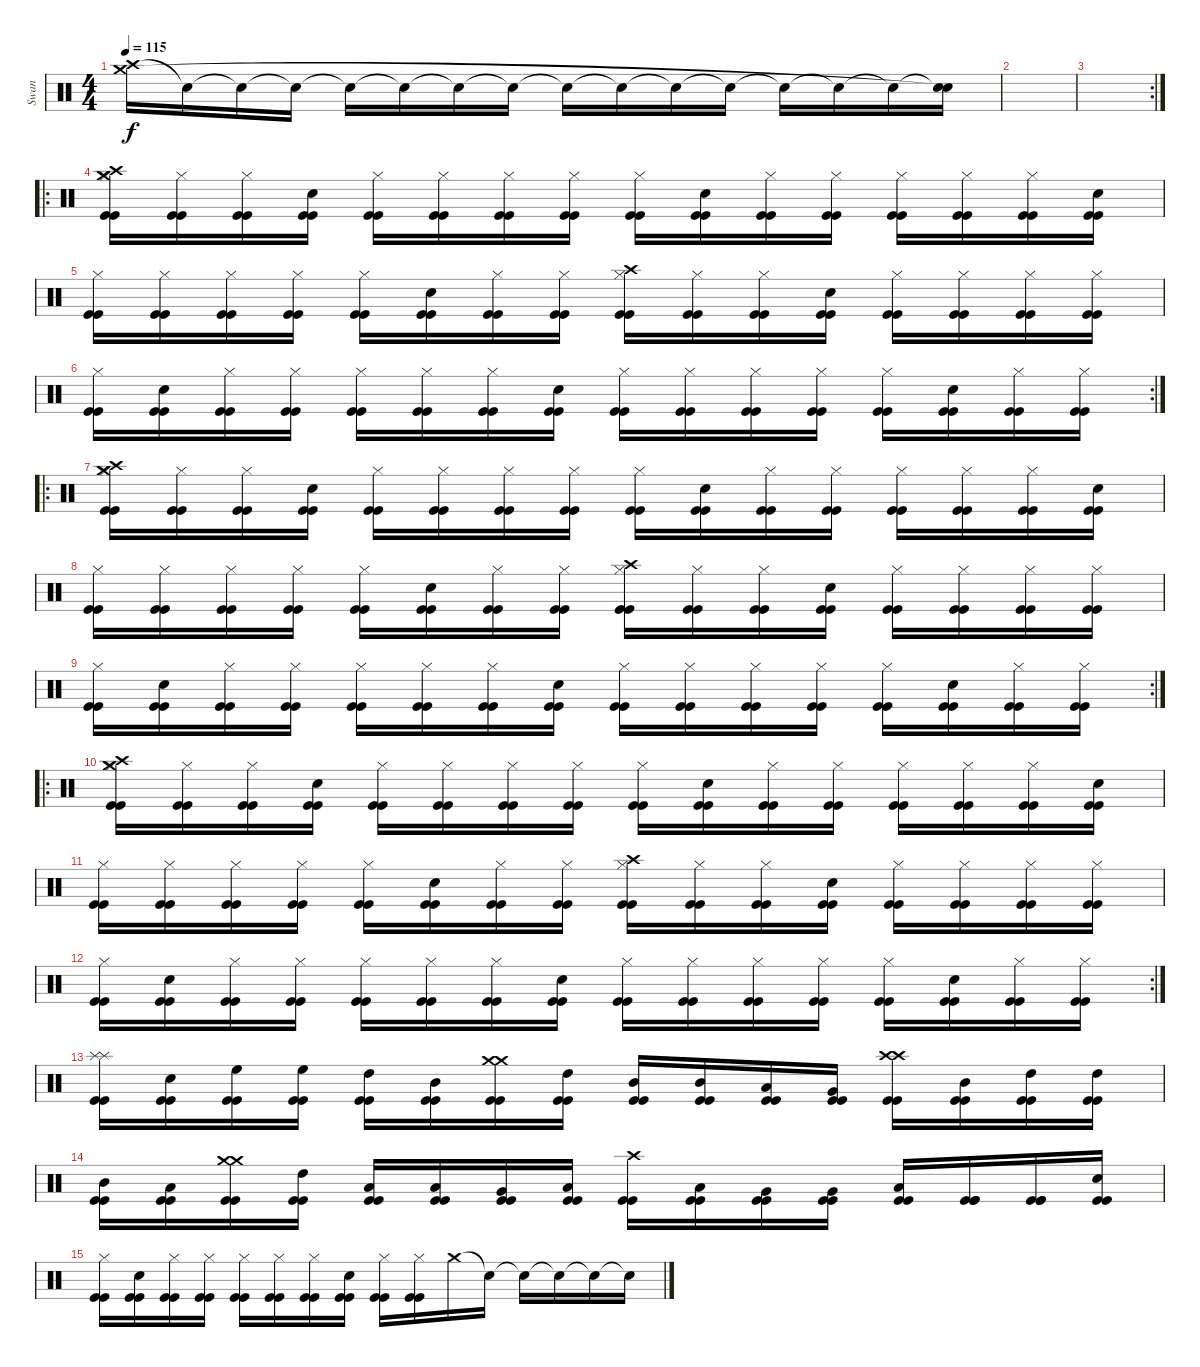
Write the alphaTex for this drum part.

\track ("Swan" "Swan") {instrument percussion}
\staff {score}
\articulation defaults
\ts (4 4)
\tempo 115
\clef neutral
\ks c
("Crash high (hit)" "Crash medium (hit)").16{dy f} "Snare (hit)"{t}.16 "Snare (hit)"{t}.16 "Snare (hit)"{t}.16 "Snare (hit)"{t}.16 "Snare (hit)"{t}.16 "Snare (hit)"{t}.16 "Snare (hit)"{t}.16 "Snare (hit)"{t}.16 "Snare (hit)"{t}.16 "Snare (hit)"{t}.16 "Snare (hit)"{t}.16 "Snare (hit)"{t}.16 "Snare (hit)"{t}.16 "Snare (hit)"{t}.16 ("Snare (hit)"{t} "Snare (hit)"{t}).16 |
|
\rc 2
|
\ro
("Crash medium (hit)" "Crash high (hit)" "Hi-Hat (closed)" "Kick (hit)" "Kick (hit)").16 ("Hi-Hat (closed)" "Kick (hit)" "Kick (hit)").16 ("Hi-Hat (closed)" "Kick (hit)" "Kick (hit)").16 ("Snare (hit) 2" "Kick (hit)" "Kick (hit)").16 ("Hi-Hat (closed)" "Kick (hit)" "Kick (hit)").16 ("Hi-Hat (closed)" "Kick (hit)" "Kick (hit)").16 ("Hi-Hat (closed)" "Kick (hit)" "Kick (hit)").16 ("Hi-Hat (closed)" "Kick (hit)" "Kick (hit)").16 ("Hi-Hat (closed)" "Kick (hit)" "Kick (hit)").16 ("Snare (hit) 2" "Kick (hit)" "Kick (hit)").16 ("Hi-Hat (closed)" "Kick (hit)" "Kick (hit)").16 ("Hi-Hat (closed)" "Kick (hit)" "Kick (hit)").16 ("Hi-Hat (closed)" "Kick (hit)" "Kick (hit)").16 ("Hi-Hat (closed)" "Kick (hit)" "Kick (hit)").16 ("Hi-Hat (closed)" "Kick (hit)" "Kick (hit)").16 ("Snare (hit) 2" "Kick (hit)" "Kick (hit)").16 |
("Hi-Hat (closed)" "Kick (hit)" "Kick (hit)").16 ("Hi-Hat (closed)" "Kick (hit)" "Kick (hit)").16 ("Hi-Hat (closed)" "Kick (hit)" "Kick (hit)").16 ("Hi-Hat (closed)" "Kick (hit)" "Kick (hit)").16 ("Hi-Hat (closed)" "Kick (hit)" "Kick (hit)").16 ("Snare (hit) 2" "Kick (hit)" "Kick (hit)").16 ("Hi-Hat (closed)" "Kick (hit)" "Kick (hit)").16 ("Hi-Hat (closed)" "Kick (hit)" "Kick (hit)").16 ("Crash high (hit)" "Hi-Hat (closed)" "Kick (hit)" "Kick (hit)").16 ("Hi-Hat (closed)" "Kick (hit)" "Kick (hit)").16 ("Hi-Hat (closed)" "Kick (hit)" "Kick (hit)").16 ("Snare (hit) 2" "Kick (hit)" "Kick (hit)").16 ("Hi-Hat (closed)" "Kick (hit)" "Kick (hit)").16 ("Hi-Hat (closed)" "Kick (hit)" "Kick (hit)").16 ("Hi-Hat (closed)" "Kick (hit)" "Kick (hit)").16 ("Hi-Hat (closed)" "Kick (hit)" "Kick (hit)").16 |
\rc 2
("Hi-Hat (closed)" "Kick (hit)" "Kick (hit)").16 ("Snare (hit) 2" "Kick (hit)" "Kick (hit)").16 ("Hi-Hat (closed)" "Kick (hit)" "Kick (hit)").16 ("Hi-Hat (closed)" "Kick (hit)" "Kick (hit)").16 ("Hi-Hat (closed)" "Kick (hit)" "Kick (hit)").16 ("Hi-Hat (closed)" "Kick (hit)" "Kick (hit)").16 ("Hi-Hat (closed)" "Kick (hit)" "Kick (hit)").16 ("Snare (hit) 2" "Kick (hit)" "Kick (hit)").16 ("Hi-Hat (closed)" "Kick (hit)" "Kick (hit)").16 ("Hi-Hat (closed)" "Kick (hit)" "Kick (hit)").16 ("Hi-Hat (closed)" "Kick (hit)" "Kick (hit)").16 ("Hi-Hat (closed)" "Kick (hit)" "Kick (hit)").16 ("Hi-Hat (closed)" "Kick (hit)" "Kick (hit)").16 ("Snare (hit) 2" "Kick (hit)" "Kick (hit)").16 ("Hi-Hat (closed)" "Kick (hit)" "Kick (hit)").16 ("Hi-Hat (closed)" "Kick (hit)" "Kick (hit)").16 |
\ro
("Crash medium (hit)" "Crash high (hit)" "Hi-Hat (closed)" "Kick (hit)" "Kick (hit)").16 ("Hi-Hat (closed)" "Kick (hit)" "Kick (hit)").16 ("Hi-Hat (closed)" "Kick (hit)" "Kick (hit)").16 ("Snare (hit) 2" "Kick (hit)" "Kick (hit)").16 ("Hi-Hat (closed)" "Kick (hit)" "Kick (hit)").16 ("Hi-Hat (closed)" "Kick (hit)" "Kick (hit)").16 ("Hi-Hat (closed)" "Kick (hit)" "Kick (hit)").16 ("Hi-Hat (closed)" "Kick (hit)" "Kick (hit)").16 ("Hi-Hat (closed)" "Kick (hit)" "Kick (hit)").16 ("Snare (hit) 2" "Kick (hit)" "Kick (hit)").16 ("Hi-Hat (closed)" "Kick (hit)" "Kick (hit)").16 ("Hi-Hat (closed)" "Kick (hit)" "Kick (hit)").16 ("Hi-Hat (closed)" "Kick (hit)" "Kick (hit)").16 ("Hi-Hat (closed)" "Kick (hit)" "Kick (hit)").16 ("Hi-Hat (closed)" "Kick (hit)" "Kick (hit)").16 ("Snare (hit) 2" "Kick (hit)" "Kick (hit)").16 |
("Hi-Hat (closed)" "Kick (hit)" "Kick (hit)").16 ("Hi-Hat (closed)" "Kick (hit)" "Kick (hit)").16 ("Hi-Hat (closed)" "Kick (hit)" "Kick (hit)").16 ("Hi-Hat (closed)" "Kick (hit)" "Kick (hit)").16 ("Hi-Hat (closed)" "Kick (hit)" "Kick (hit)").16 ("Snare (hit) 2" "Kick (hit)" "Kick (hit)").16 ("Hi-Hat (closed)" "Kick (hit)" "Kick (hit)").16 ("Hi-Hat (closed)" "Kick (hit)" "Kick (hit)").16 ("Crash high (hit)" "Hi-Hat (closed)" "Kick (hit)" "Kick (hit)").16 ("Hi-Hat (closed)" "Kick (hit)" "Kick (hit)").16 ("Hi-Hat (closed)" "Kick (hit)" "Kick (hit)").16 ("Snare (hit) 2" "Kick (hit)" "Kick (hit)").16 ("Hi-Hat (closed)" "Kick (hit)" "Kick (hit)").16 ("Hi-Hat (closed)" "Kick (hit)" "Kick (hit)").16 ("Hi-Hat (closed)" "Kick (hit)" "Kick (hit)").16 ("Hi-Hat (closed)" "Kick (hit)" "Kick (hit)").16 |
\rc 2
("Hi-Hat (closed)" "Kick (hit)" "Kick (hit)").16 ("Snare (hit) 2" "Kick (hit)" "Kick (hit)").16 ("Hi-Hat (closed)" "Kick (hit)" "Kick (hit)").16 ("Hi-Hat (closed)" "Kick (hit)" "Kick (hit)").16 ("Hi-Hat (closed)" "Kick (hit)" "Kick (hit)").16 ("Hi-Hat (closed)" "Kick (hit)" "Kick (hit)").16 ("Hi-Hat (closed)" "Kick (hit)" "Kick (hit)").16 ("Snare (hit) 2" "Kick (hit)" "Kick (hit)").16 ("Hi-Hat (closed)" "Kick (hit)" "Kick (hit)").16 ("Hi-Hat (closed)" "Kick (hit)" "Kick (hit)").16 ("Hi-Hat (closed)" "Kick (hit)" "Kick (hit)").16 ("Hi-Hat (closed)" "Kick (hit)" "Kick (hit)").16 ("Hi-Hat (closed)" "Kick (hit)" "Kick (hit)").16 ("Snare (hit) 2" "Kick (hit)" "Kick (hit)").16 ("Hi-Hat (closed)" "Kick (hit)" "Kick (hit)").16 ("Hi-Hat (closed)" "Kick (hit)" "Kick (hit)").16 |
\ro
("Crash medium (hit)" "Crash high (hit)" "Hi-Hat (closed)" "Kick (hit)" "Kick (hit)").16 ("Hi-Hat (closed)" "Kick (hit)" "Kick (hit)").16 ("Hi-Hat (closed)" "Kick (hit)" "Kick (hit)").16 ("Snare (hit) 2" "Kick (hit)" "Kick (hit)").16 ("Hi-Hat (closed)" "Kick (hit)" "Kick (hit)").16 ("Hi-Hat (closed)" "Kick (hit)" "Kick (hit)").16 ("Hi-Hat (closed)" "Kick (hit)" "Kick (hit)").16 ("Hi-Hat (closed)" "Kick (hit)" "Kick (hit)").16 ("Hi-Hat (closed)" "Kick (hit)" "Kick (hit)").16 ("Snare (hit) 2" "Kick (hit)" "Kick (hit)").16 ("Hi-Hat (closed)" "Kick (hit)" "Kick (hit)").16 ("Hi-Hat (closed)" "Kick (hit)" "Kick (hit)").16 ("Hi-Hat (closed)" "Kick (hit)" "Kick (hit)").16 ("Hi-Hat (closed)" "Kick (hit)" "Kick (hit)").16 ("Hi-Hat (closed)" "Kick (hit)" "Kick (hit)").16 ("Snare (hit) 2" "Kick (hit)" "Kick (hit)").16 |
("Hi-Hat (closed)" "Kick (hit)" "Kick (hit)").16 ("Hi-Hat (closed)" "Kick (hit)" "Kick (hit)").16 ("Hi-Hat (closed)" "Kick (hit)" "Kick (hit)").16 ("Hi-Hat (closed)" "Kick (hit)" "Kick (hit)").16 ("Hi-Hat (closed)" "Kick (hit)" "Kick (hit)").16 ("Snare (hit) 2" "Kick (hit)" "Kick (hit)").16 ("Hi-Hat (closed)" "Kick (hit)" "Kick (hit)").16 ("Hi-Hat (closed)" "Kick (hit)" "Kick (hit)").16 ("Crash high (hit)" "Hi-Hat (closed)" "Kick (hit)" "Kick (hit)").16 ("Hi-Hat (closed)" "Kick (hit)" "Kick (hit)").16 ("Hi-Hat (closed)" "Kick (hit)" "Kick (hit)").16 ("Snare (hit) 2" "Kick (hit)" "Kick (hit)").16 ("Hi-Hat (closed)" "Kick (hit)" "Kick (hit)").16 ("Hi-Hat (closed)" "Kick (hit)" "Kick (hit)").16 ("Hi-Hat (closed)" "Kick (hit)" "Kick (hit)").16 ("Hi-Hat (closed)" "Kick (hit)" "Kick (hit)").16 |
\rc 2
("Hi-Hat (closed)" "Kick (hit)" "Kick (hit)").16 ("Snare (hit) 2" "Kick (hit)" "Kick (hit)").16 ("Hi-Hat (closed)" "Kick (hit)" "Kick (hit)").16 ("Hi-Hat (closed)" "Kick (hit)" "Kick (hit)").16 ("Hi-Hat (closed)" "Kick (hit)" "Kick (hit)").16 ("Hi-Hat (closed)" "Kick (hit)" "Kick (hit)").16 ("Hi-Hat (closed)" "Kick (hit)" "Kick (hit)").16 ("Snare (hit) 2" "Kick (hit)" "Kick (hit)").16 ("Hi-Hat (closed)" "Kick (hit)" "Kick (hit)").16 ("Hi-Hat (closed)" "Kick (hit)" "Kick (hit)").16 ("Hi-Hat (closed)" "Kick (hit)" "Kick (hit)").16 ("Hi-Hat (closed)" "Kick (hit)" "Kick (hit)").16 ("Hi-Hat (closed)" "Kick (hit)" "Kick (hit)").16 ("Snare (hit) 2" "Kick (hit)" "Kick (hit)").16 ("Hi-Hat (closed)" "Kick (hit)" "Kick (hit)").16 ("Hi-Hat (closed)" "Kick (hit)" "Kick (hit)").16 |
("Splash (hit)" "Splash (hit)" "Kick (hit)" "Kick (hit)").16 ("Kick (hit)" "Kick (hit)" "Snare (hit) 2").16 ("High Floor Tom (hit)" "Kick (hit)" "Kick (hit)").16 ("High Floor Tom (hit)" "Kick (hit)" "Kick (hit)").16 ("High Tom (hit)" "Kick (hit)" "Kick (hit)").16 ("Mid Tom (hit)" "Kick (hit)" "Kick (hit)").16 ("Crash medium (hit)" "Crash medium (hit)" "Kick (hit)" "Kick (hit)").16 ("High Tom (hit)" "Kick (hit)" "Kick (hit)").16 ("Mid Tom (hit)" "Kick (hit)" "Kick (hit)").16 ("Mid Tom (hit)" "Kick (hit)" "Kick (hit)").16 ("Low Tom (hit)" "Kick (hit)" "Kick (hit)").16 ("Very Low Tom (hit)" "Kick (hit)" "Kick (hit)").16 ("Crash high (hit)" "Crash high (hit)" "Kick (hit)" "Kick (hit)").16 ("Mid Tom (hit)" "Kick (hit)" "Kick (hit)").16 ("High Tom (hit)" "Kick (hit)" "Kick (hit)").16 ("High Tom (hit)" "Kick (hit)" "Kick (hit)").16 |
("Mid Tom (hit)" "Kick (hit)" "Kick (hit)").16 ("Low Tom (hit)" "Kick (hit)" "Kick (hit)").16 ("Crash medium (hit)" "Crash medium (hit)" "Kick (hit)" "Kick (hit)").16 ("High Tom (hit)" "Kick (hit)" "Kick (hit)").16 ("Low Tom (hit)" "Kick (hit)" "Kick (hit)").16 ("Low Tom (hit)" "Kick (hit)" "Kick (hit)").16 ("Very Low Tom (hit)" "Kick (hit)" "Kick (hit)").16 ("Low Floor Tom (hit)" "Kick (hit)" "Kick (hit)").16 ("Crash high (hit)" "Kick (hit)" "Kick (hit)").16 ("Low Tom (hit)" "Kick (hit)" "Kick (hit)").16 ("Very Low Tom (hit)" "Kick (hit)" "Kick (hit)").16 ("Very Low Tom (hit)" "Kick (hit)" "Kick (hit)").16 ("Low Floor Tom (hit)" "Kick (hit)" "Kick (hit)").16 ("Kick (hit)" "Kick (hit)" "Kick (hit)").16 ("Kick (hit)" "Kick (hit)" "Kick (hit)").16 ("Snare (hit) 2" "Kick (hit)" "Kick (hit)").16 |
("Hi-Hat (closed)" "Kick (hit)" "Kick (hit)").16 ("Snare (hit) 2" "Kick (hit)" "Kick (hit)").16 ("Hi-Hat (closed)" "Kick (hit)" "Kick (hit)").16 ("Hi-Hat (closed)" "Kick (hit)" "Kick (hit)").16 ("Hi-Hat (closed)" "Kick (hit)" "Kick (hit)").16 ("Hi-Hat (closed)" "Kick (hit)" "Kick (hit)").16 ("Hi-Hat (closed)" "Kick (hit)" "Kick (hit)").16 ("Snare (hit) 2" "Kick (hit)" "Kick (hit)").16 ("Hi-Hat (closed)" "Kick (hit)" "Kick (hit)").16 ("Hi-Hat (closed)" "Kick (hit)" "Kick (hit)").16 "Crash medium (hit)".16 "Snare (hit)"{t}.16 "Snare (hit)"{t}.16 "Snare (hit)"{t}.16 "Snare (hit)"{t}.16 "Snare (hit)"{t}.16
